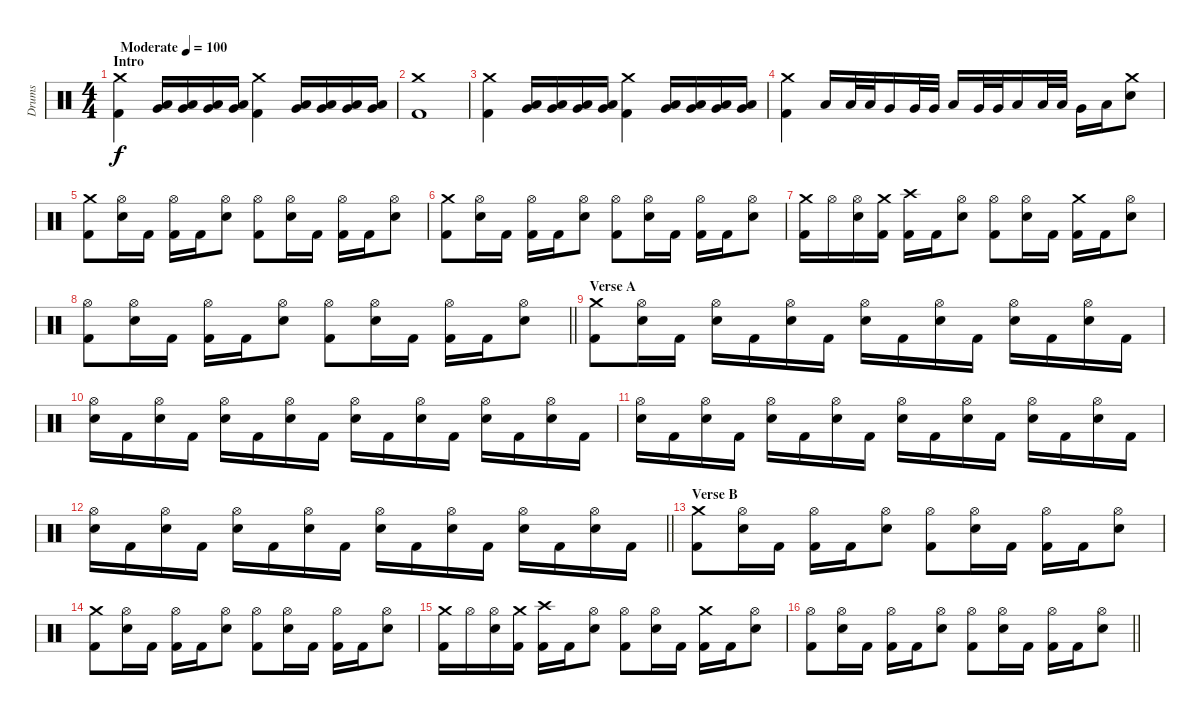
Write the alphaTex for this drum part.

\track ("Drums" "Drums") {instrument percussion}
\staff {score}
\articulation defaults
\ts (4 4)
\section ("" "Intro")
\tempo (100 "Moderate")
\clef neutral
\ks c
("Crash medium (hit)" "Kick (hit) 2").4{dy f} ("Low Tom (hit)" "Very Low Tom (hit)").16 ("Low Tom (hit)" "Very Low Tom (hit)").16 ("Low Tom (hit)" "Very Low Tom (hit)").16 ("Low Tom (hit)" "Very Low Tom (hit)").16 ("Crash medium (hit)" "Kick (hit) 2").4 ("Low Tom (hit)" "Very Low Tom (hit)").16 ("Low Tom (hit)" "Very Low Tom (hit)").16 ("Low Tom (hit)" "Very Low Tom (hit)").16 ("Low Tom (hit)" "Very Low Tom (hit)").16 |
("Crash medium (hit)" "Kick (hit) 2").1 |
("Crash medium (hit)" "Kick (hit) 2").4 ("Low Tom (hit)" "Very Low Tom (hit)").16 ("Low Tom (hit)" "Very Low Tom (hit)").16 ("Low Tom (hit)" "Very Low Tom (hit)").16 ("Low Tom (hit)" "Very Low Tom (hit)").16 ("Crash medium (hit)" "Kick (hit) 2").4 ("Low Tom (hit)" "Very Low Tom (hit)").16 ("Low Tom (hit)" "Very Low Tom (hit)").16 ("Low Tom (hit)" "Very Low Tom (hit)").16 ("Low Tom (hit)" "Very Low Tom (hit)").16 |
("Crash medium (hit)" "Kick (hit) 2").4 "Low Tom (hit)".16 "Low Tom (hit)".32 "Low Tom (hit)".32 "Very Low Tom (hit)".16 "Very Low Tom (hit)".32 "Very Low Tom (hit)".32 "Low Floor Tom (hit)".16 "Very Low Tom (hit)".32 "Very Low Tom (hit)".32 "Low Tom (hit)".16 "Low Tom (hit)".32 "Low Tom (hit)".32 "Very Low Tom (hit)".16 "Low Floor Tom (hit)".16 ("Crash medium (hit)" "Electric Snare (hit)").8 |
("Crash medium (hit)" "Kick (hit) 2").8 ("Hi-Hat (open)" "Electric Snare (hit)").16 "Kick (hit) 2".16 ("Hi-Hat (open)" "Kick (hit) 2").16 "Kick (hit) 2".16 ("Hi-Hat (open)" "Electric Snare (hit)").8 ("Hi-Hat (open)" "Kick (hit) 2").8 ("Hi-Hat (open)" "Electric Snare (hit)").16 "Kick (hit) 2".16 ("Hi-Hat (open)" "Kick (hit) 2").16 "Kick (hit) 2".16 ("Hi-Hat (open)" "Electric Snare (hit)").8 |
("Crash medium (hit)" "Kick (hit) 2").8 ("Hi-Hat (open)" "Electric Snare (hit)").16 "Kick (hit) 2".16 ("Hi-Hat (open)" "Kick (hit) 2").16 "Kick (hit) 2".16 ("Hi-Hat (open)" "Electric Snare (hit)").8 ("Hi-Hat (open)" "Kick (hit) 2").8 ("Hi-Hat (open)" "Electric Snare (hit)").16 "Kick (hit) 2".16 ("Hi-Hat (open)" "Kick (hit) 2").16 "Kick (hit) 2".16 ("Hi-Hat (open)" "Electric Snare (hit)").8 |
("Crash medium (hit)" "Kick (hit) 2").16 "Hi-Hat (open)".16 ("Hi-Hat (open)" "Electric Snare (hit)").16 ("Crash medium (hit)" "Kick (hit) 2").16 ("Crash high (hit)" "Kick (hit) 2").16 "Kick (hit) 2".16 ("Hi-Hat (open)" "Electric Snare (hit)").8 ("Hi-Hat (open)" "Kick (hit) 2").8 ("Hi-Hat (open)" "Electric Snare (hit)").16 "Kick (hit) 2".16 ("Crash medium (hit)" "Kick (hit) 2").16 "Kick (hit) 2".16 ("Hi-Hat (open)" "Electric Snare (hit)").8 |
\barLineRight lightlight
("Hi-Hat (open)" "Kick (hit) 2").8 ("Hi-Hat (open)" "Electric Snare (hit)").16 "Kick (hit) 2".16 ("Hi-Hat (open)" "Kick (hit) 2").16 "Kick (hit) 2".16 ("Hi-Hat (open)" "Electric Snare (hit)").8 ("Hi-Hat (open)" "Kick (hit) 2").8 ("Hi-Hat (open)" "Electric Snare (hit)").16 "Kick (hit) 2".16 ("Hi-Hat (open)" "Kick (hit) 2").16 "Kick (hit) 2".16 ("Hi-Hat (open)" "Electric Snare (hit)").8 |
\section ("" "Verse A")
("Crash medium (hit)" "Kick (hit) 2").8 ("Hi-Hat (open)" "Electric Snare (hit)").16 "Kick (hit) 2".16 ("Hi-Hat (open)" "Electric Snare (hit)").16 "Kick (hit) 2".16 ("Hi-Hat (open)" "Electric Snare (hit)").16 "Kick (hit) 2".16 ("Hi-Hat (open)" "Electric Snare (hit)").16 "Kick (hit) 2".16 ("Hi-Hat (open)" "Electric Snare (hit)").16 "Kick (hit) 2".16 ("Hi-Hat (open)" "Electric Snare (hit)").16 "Kick (hit) 2".16 ("Hi-Hat (open)" "Electric Snare (hit)").16 "Kick (hit) 2".16 |
("Hi-Hat (open)" "Electric Snare (hit)").16 "Kick (hit) 2".16 ("Hi-Hat (open)" "Electric Snare (hit)").16 "Kick (hit) 2".16 ("Hi-Hat (open)" "Electric Snare (hit)").16 "Kick (hit) 2".16 ("Hi-Hat (open)" "Electric Snare (hit)").16 "Kick (hit) 2".16 ("Hi-Hat (open)" "Electric Snare (hit)").16 "Kick (hit) 2".16 ("Hi-Hat (open)" "Electric Snare (hit)").16 "Kick (hit) 2".16 ("Hi-Hat (open)" "Electric Snare (hit)").16 "Kick (hit) 2".16 ("Hi-Hat (open)" "Electric Snare (hit)").16 "Kick (hit) 2".16 |
("Hi-Hat (open)" "Electric Snare (hit)").16 "Kick (hit) 2".16 ("Hi-Hat (open)" "Electric Snare (hit)").16 "Kick (hit) 2".16 ("Hi-Hat (open)" "Electric Snare (hit)").16 "Kick (hit) 2".16 ("Hi-Hat (open)" "Electric Snare (hit)").16 "Kick (hit) 2".16 ("Hi-Hat (open)" "Electric Snare (hit)").16 "Kick (hit) 2".16 ("Hi-Hat (open)" "Electric Snare (hit)").16 "Kick (hit) 2".16 ("Hi-Hat (open)" "Electric Snare (hit)").16 "Kick (hit) 2".16 ("Hi-Hat (open)" "Electric Snare (hit)").16 "Kick (hit) 2".16 |
\barLineRight lightlight
("Hi-Hat (open)" "Electric Snare (hit)").16 "Kick (hit) 2".16 ("Hi-Hat (open)" "Electric Snare (hit)").16 "Kick (hit) 2".16 ("Hi-Hat (open)" "Electric Snare (hit)").16 "Kick (hit) 2".16 ("Hi-Hat (open)" "Electric Snare (hit)").16 "Kick (hit) 2".16 ("Hi-Hat (open)" "Electric Snare (hit)").16 "Kick (hit) 2".16 ("Hi-Hat (open)" "Electric Snare (hit)").16 "Kick (hit) 2".16 ("Hi-Hat (open)" "Electric Snare (hit)").16 "Kick (hit) 2".16 ("Hi-Hat (open)" "Electric Snare (hit)").16 "Kick (hit) 2".16 |
\section ("" "Verse B")
("Crash medium (hit)" "Kick (hit) 2").8 ("Hi-Hat (open)" "Electric Snare (hit)").16 "Kick (hit) 2".16 ("Hi-Hat (open)" "Kick (hit) 2").16 "Kick (hit) 2".16 ("Hi-Hat (open)" "Electric Snare (hit)").8 ("Hi-Hat (open)" "Kick (hit) 2").8 ("Hi-Hat (open)" "Electric Snare (hit)").16 "Kick (hit) 2".16 ("Hi-Hat (open)" "Kick (hit) 2").16 "Kick (hit) 2".16 ("Hi-Hat (open)" "Electric Snare (hit)").8 |
("Crash medium (hit)" "Kick (hit) 2").8 ("Hi-Hat (open)" "Electric Snare (hit)").16 "Kick (hit) 2".16 ("Hi-Hat (open)" "Kick (hit) 2").16 "Kick (hit) 2".16 ("Hi-Hat (open)" "Electric Snare (hit)").8 ("Hi-Hat (open)" "Kick (hit) 2").8 ("Hi-Hat (open)" "Electric Snare (hit)").16 "Kick (hit) 2".16 ("Hi-Hat (open)" "Kick (hit) 2").16 "Kick (hit) 2".16 ("Hi-Hat (open)" "Electric Snare (hit)").8 |
("Crash medium (hit)" "Kick (hit) 2").16 "Hi-Hat (open)".16 ("Hi-Hat (open)" "Electric Snare (hit)").16 ("Crash medium (hit)" "Kick (hit) 2").16 ("Crash high (hit)" "Kick (hit) 2").16 "Kick (hit) 2".16 ("Hi-Hat (open)" "Electric Snare (hit)").8 ("Hi-Hat (open)" "Kick (hit) 2").8 ("Hi-Hat (open)" "Electric Snare (hit)").16 "Kick (hit) 2".16 ("Crash medium (hit)" "Kick (hit) 2").16 "Kick (hit) 2".16 ("Hi-Hat (open)" "Electric Snare (hit)").8 |
\barLineRight lightlight
("Hi-Hat (open)" "Kick (hit) 2").8 ("Hi-Hat (open)" "Electric Snare (hit)").16 "Kick (hit) 2".16 ("Hi-Hat (open)" "Kick (hit) 2").16 "Kick (hit) 2".16 ("Hi-Hat (open)" "Electric Snare (hit)").8 ("Hi-Hat (open)" "Kick (hit) 2").8 ("Hi-Hat (open)" "Electric Snare (hit)").16 "Kick (hit) 2".16 ("Hi-Hat (open)" "Kick (hit) 2").16 "Kick (hit) 2".16 ("Hi-Hat (open)" "Electric Snare (hit)").8
